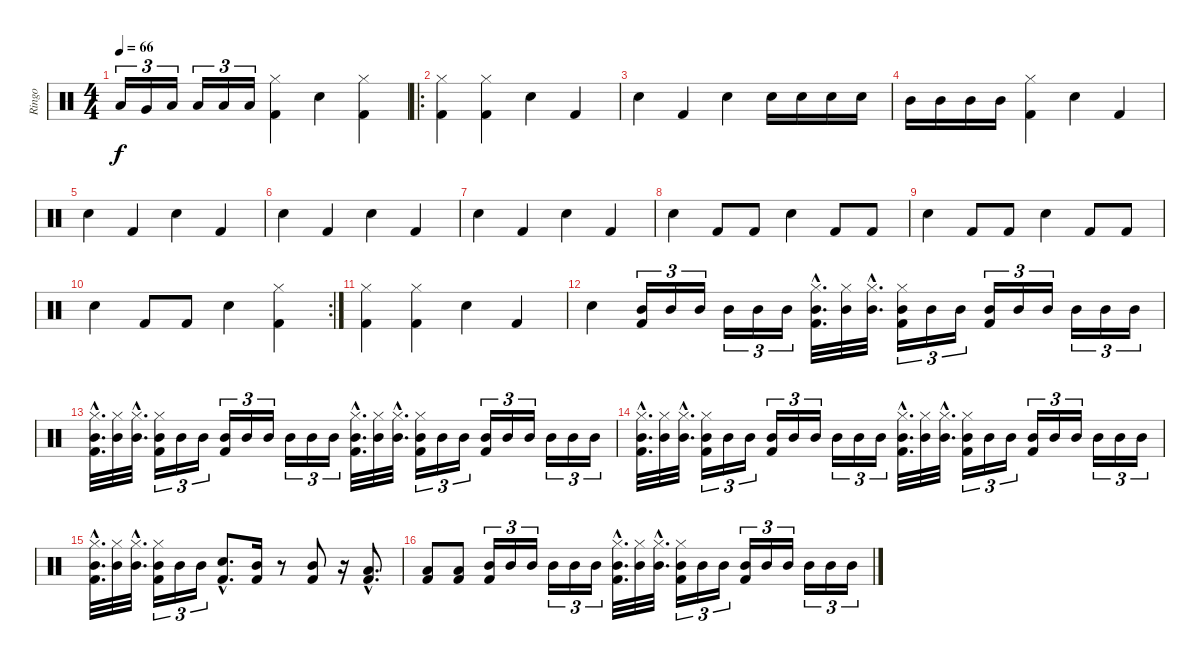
\track ("Ringo" "Ringo") {instrument percussion}
\staff {score}
\articulation defaults
\ts (4 4)
\tempo 66
\clef neutral
\ks c "Low Floor Tom (hit)".16{tu (3 2) dy f} "Very Low Tom (hit)".16{tu (3 2)} "Low Tom (hit)".16{tu (3 2)} "Low Tom (hit)".16{tu (3 2)} "Low Tom (hit)".16{tu (3 2)} "Low Tom (hit)".16{tu (3 2)}
("Hi-Hat (closed)" "Kick (hit) 2").4 "Snare (hit) 2".4 ("Hi-Hat (closed)" "Kick (hit) 2").4 |
\ro
("Hi-Hat (closed)" "Kick (hit) 2").4 ("Hi-Hat (closed)" "Kick (hit) 2").4 "Snare (hit) 2".4 "Kick (hit) 2".4 |
"Snare (hit) 2".4 "Kick (hit) 2".4 "Snare (hit) 2".4 "Snare (hit) 2".16 "Snare (hit) 2".16 "Snare (hit) 2".16 "Snare (hit) 2".16 |
"Mid Tom (hit)".16 "Mid Tom (hit)".16 "Mid Tom (hit)".16 "Mid Tom (hit)".16 ("Hi-Hat (closed)" "Kick (hit) 2").4 "Snare (hit) 2".4 "Kick (hit) 2".4 |
"Snare (hit) 2".4 "Kick (hit) 2".4 "Snare (hit) 2".4 "Kick (hit) 2".4 |
"Snare (hit) 2".4 "Kick (hit) 2".4 "Snare (hit) 2".4 "Kick (hit) 2".4 |
"Snare (hit) 2".4 "Kick (hit) 2".4 "Snare (hit) 2".4 "Kick (hit) 2".4 |
"Snare (hit) 2".4 "Kick (hit) 2".8 "Kick (hit) 2".8 "Snare (hit) 2".4 "Kick (hit) 2".8 "Kick (hit) 2".8 |
"Snare (hit) 2".4 "Kick (hit) 2".8 "Kick (hit) 2".8 "Snare (hit) 2".4 "Kick (hit) 2".8 "Kick (hit) 2".8 |
\rc 2 "Snare (hit) 2".4 "Kick (hit) 2".8 "Kick (hit) 2".8 "Snare (hit) 2".4
("Hi-Hat (closed)" "Kick (hit) 2").4 |
("Hi-Hat (closed)" "Kick (hit) 2").4 ("Hi-Hat (closed)" "Kick (hit) 2").4 "Snare (hit) 2".4 "Kick (hit) 2".4 |
"Snare (hit) 2".4 ("Mid Tom (hit)" "Kick (hit) 2").16{tu (3 2)} "Mid Tom (hit)".16{tu (3 2)} "Mid Tom (hit)".16{tu (3 2)} "Mid Tom (hit)".16{tu (3 2)} "Mid Tom (hit)".16{tu (3 2)} "Mid Tom (hit)".16{tu (3 2)} ("Hi-Hat (closed)"{hac} "Mid Tom (hit)"{hac} "Kick (hit) 2"{hac}).32{d} ("Hi-Hat (closed)" "Mid Tom (hit)").32 ("Hi-Hat (closed)"{hac} "Mid Tom (hit)"{hac}).32{d} ("Hi-Hat (closed)" "Mid Tom (hit)" "Kick (hit) 2").16{tu (3 2)} "Mid Tom (hit)".16{tu (3 2)} "Mid Tom (hit)".16{tu (3 2)} ("Mid Tom (hit)" "Kick (hit) 2").16{tu (3 2)} "Mid Tom (hit)".16{tu (3 2)} "Mid Tom (hit)".16{tu (3 2)} "Mid Tom (hit)".16{tu (3 2)} "Mid Tom (hit)".16{tu (3 2)} "Mid Tom (hit)".16{tu (3 2)} |
("Hi-Hat (closed)"{hac} "Mid Tom (hit)"{hac} "Kick (hit) 2"{hac}).32{d} ("Hi-Hat (closed)" "Mid Tom (hit)").32 ("Hi-Hat (closed)"{hac} "Mid Tom (hit)"{hac}).32{d} ("Hi-Hat (closed)" "Mid Tom (hit)" "Kick (hit) 2").16{tu (3 2)} "Mid Tom (hit)".16{tu (3 2)} "Mid Tom (hit)".16{tu (3 2)} ("Mid Tom (hit)" "Kick (hit) 2").16{tu (3 2)} "Mid Tom (hit)".16{tu (3 2)} "Mid Tom (hit)".16{tu (3 2)} "Mid Tom (hit)".16{tu (3 2)} "Mid Tom (hit)".16{tu (3 2)} "Mid Tom (hit)".16{tu (3 2)} ("Hi-Hat (closed)"{hac} "Mid Tom (hit)"{hac} "Kick (hit) 2"{hac}).32{d} ("Hi-Hat (closed)" "Mid Tom (hit)").32 ("Hi-Hat (closed)"{hac} "Mid Tom (hit)"{hac}).32{d} ("Hi-Hat (closed)" "Mid Tom (hit)" "Kick (hit) 2").16{tu (3 2)} "Mid Tom (hit)".16{tu (3 2)} "Mid Tom (hit)".16{tu (3 2)} ("Mid Tom (hit)" "Kick (hit) 2").16{tu (3 2)} "Mid Tom (hit)".16{tu (3 2)} "Mid Tom (hit)".16{tu (3 2)} "Mid Tom (hit)".16{tu (3 2)} "Mid Tom (hit)".16{tu (3 2)} "Mid Tom (hit)".16{tu (3 2)} |
("Hi-Hat (closed)"{hac} "Mid Tom (hit)"{hac} "Kick (hit) 2"{hac}).32{d} ("Hi-Hat (closed)" "Mid Tom (hit)").32 ("Hi-Hat (closed)"{hac} "Mid Tom (hit)"{hac}).32{d} ("Hi-Hat (closed)" "Mid Tom (hit)" "Kick (hit) 2").16{tu (3 2)} "Mid Tom (hit)".16{tu (3 2)} "Mid Tom (hit)".16{tu (3 2)} ("Mid Tom (hit)" "Kick (hit) 2").16{tu (3 2)} "Mid Tom (hit)".16{tu (3 2)} "Mid Tom (hit)".16{tu (3 2)} "Mid Tom (hit)".16{tu (3 2)} "Mid Tom (hit)".16{tu (3 2)} "Mid Tom (hit)".16{tu (3 2)} ("Hi-Hat (closed)"{hac} "Mid Tom (hit)"{hac} "Kick (hit) 2"{hac}).32{d} ("Hi-Hat (closed)" "Mid Tom (hit)").32 ("Hi-Hat (closed)"{hac} "Mid Tom (hit)"{hac}).32{d} ("Hi-Hat (closed)" "Mid Tom (hit)" "Kick (hit) 2").16{tu (3 2)} "Mid Tom (hit)".16{tu (3 2)} "Mid Tom (hit)".16{tu (3 2)} ("Mid Tom (hit)" "Kick (hit) 2").16{tu (3 2)} "Mid Tom (hit)".16{tu (3 2)} "Mid Tom (hit)".16{tu (3 2)} "Mid Tom (hit)".16{tu (3 2)} "Mid Tom (hit)".16{tu (3 2)} "Mid Tom (hit)".16{tu (3 2)} |
("Hi-Hat (closed)"{hac} "Mid Tom (hit)"{hac} "Kick (hit) 2"{hac}).32{d} ("Hi-Hat (closed)" "Mid Tom (hit)").32 ("Hi-Hat (closed)"{hac} "Mid Tom (hit)"{hac}).32{d} ("Hi-Hat (closed)" "Mid Tom (hit)" "Kick (hit) 2").16{tu (3 2)} "Mid Tom (hit)".16{tu (3 2)} "Mid Tom (hit)".16{tu (3 2)} ("Snare (hit) 2"{hac} "Kick (hit) 2"{hac}).8{d} ("Mid Tom (hit)" "Kick (hit) 2").16 r.8 ("Mid Tom (hit)" "Kick (hit) 2").8 r.16 ("Low Floor Tom (hit)"{hac} "Kick (hit) 2"{hac}).8{d} |
("Low Floor Tom (hit)" "Kick (hit) 2").8 ("Low Floor Tom (hit)" "Kick (hit) 2").8 ("Mid Tom (hit)" "Kick (hit) 2").16{tu (3 2)} "Mid Tom (hit)".16{tu (3 2)} "Mid Tom (hit)".16{tu (3 2)} "Mid Tom (hit)".16{tu (3 2)} "Mid Tom (hit)".16{tu (3 2)} "Mid Tom (hit)".16{tu (3 2)} ("Hi-Hat (closed)"{hac} "Mid Tom (hit)"{hac} "Kick (hit) 2"{hac}).32{d} ("Hi-Hat (closed)" "Mid Tom (hit)").32 ("Hi-Hat (closed)"{hac} "Mid Tom (hit)"{hac}).32{d} ("Hi-Hat (closed)" "Mid Tom (hit)" "Kick (hit) 2").16{tu (3 2)} "Mid Tom (hit)".16{tu (3 2)} "Mid Tom (hit)".16{tu (3 2)} ("Mid Tom (hit)" "Kick (hit) 2").16{tu (3 2)} "Mid Tom (hit)".16{tu (3 2)} "Mid Tom (hit)".16{tu (3 2)} "Mid Tom (hit)".16{tu (3 2)} "Mid Tom (hit)".16{tu (3 2)} "Mid Tom (hit)".16{tu (3 2)}
